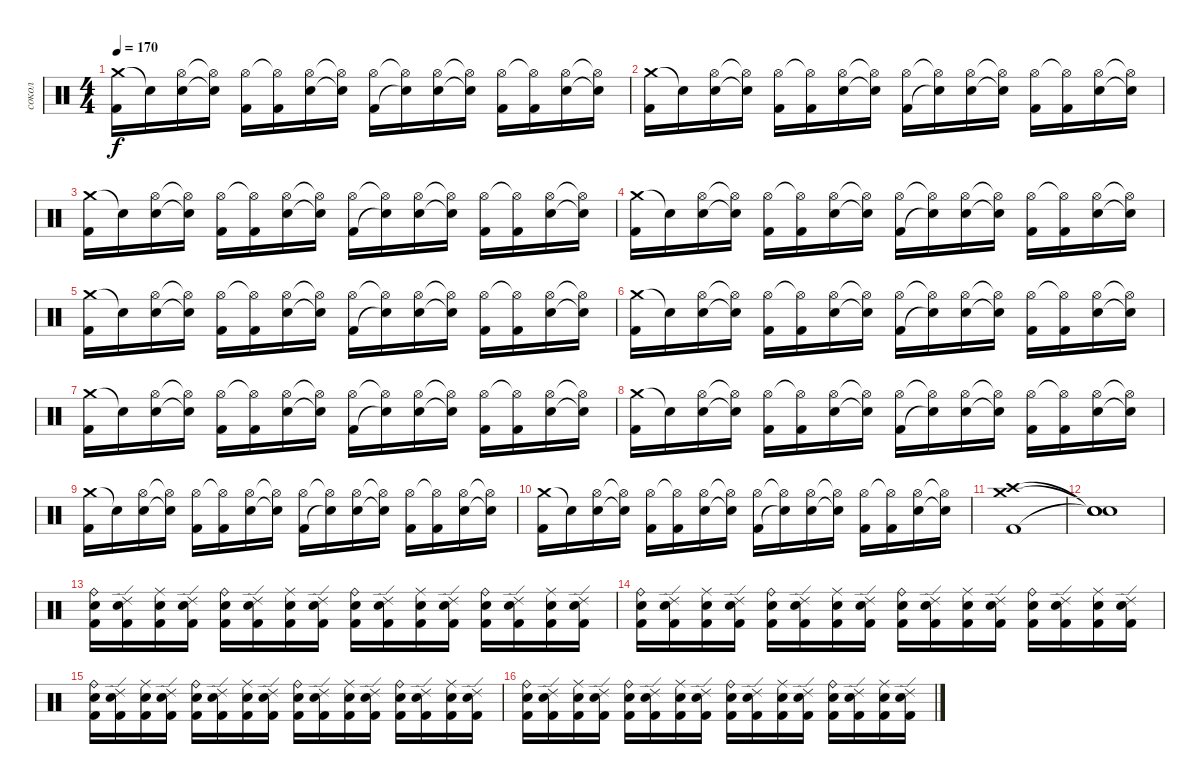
\track ("сокол" "сокол") {instrument percussion}
\staff
\articulation defaults
\ts (4 4)
\tempo 170
\clef neutral
\ks c
("Crash medium (hit)" "Kick (hit) 2").16{dy f} "Snare (hit)"{t}.16 ("Hi-Hat (open)" "Electric Snare (hit)").16 ("Hi-Hat (open)"{t} "Snare (hit)"{t}).16 ("Hi-Hat (open)" "Kick (hit) 2").16 ("Hi-Hat (open)"{t} "Kick (hit) 2").16 ("Hi-Hat (open)" "Electric Snare (hit)").16 ("Hi-Hat (open)"{t} "Snare (hit)"{t}).16 ("Hi-Hat (open)" "Kick (hit) 2").16 ("Hi-Hat (open)"{t} "Snare (hit)"{t}).16 ("Hi-Hat (open)" "Electric Snare (hit)").16 ("Hi-Hat (open)"{t} "Snare (hit)"{t}).16 ("Hi-Hat (open)" "Kick (hit) 2").16 ("Hi-Hat (open)"{t} "Kick (hit) 2").16 ("Hi-Hat (open)" "Electric Snare (hit)").16 ("Hi-Hat (open)"{t} "Snare (hit)"{t}).16 |
("Crash medium (hit)" "Kick (hit) 2").16 "Snare (hit)"{t}.16 ("Hi-Hat (open)" "Electric Snare (hit)").16 ("Hi-Hat (open)"{t} "Snare (hit)"{t}).16 ("Hi-Hat (open)" "Kick (hit) 2").16 ("Hi-Hat (open)"{t} "Kick (hit) 2").16 ("Hi-Hat (open)" "Electric Snare (hit)").16 ("Hi-Hat (open)"{t} "Snare (hit)"{t}).16 ("Hi-Hat (open)" "Kick (hit) 2").16 ("Hi-Hat (open)"{t} "Snare (hit)"{t}).16 ("Hi-Hat (open)" "Electric Snare (hit)").16 ("Hi-Hat (open)"{t} "Snare (hit)"{t}).16 ("Hi-Hat (open)" "Kick (hit) 2").16 ("Hi-Hat (open)"{t} "Kick (hit) 2").16 ("Hi-Hat (open)" "Electric Snare (hit)").16 ("Hi-Hat (open)"{t} "Snare (hit)"{t}).16 |
("Crash medium (hit)" "Kick (hit) 2").16 "Snare (hit)"{t}.16 ("Hi-Hat (open)" "Electric Snare (hit)").16 ("Hi-Hat (open)"{t} "Snare (hit)"{t}).16 ("Hi-Hat (open)" "Kick (hit) 2").16 ("Hi-Hat (open)"{t} "Kick (hit) 2").16 ("Hi-Hat (open)" "Electric Snare (hit)").16 ("Hi-Hat (open)"{t} "Snare (hit)"{t}).16 ("Hi-Hat (open)" "Kick (hit) 2").16 ("Hi-Hat (open)"{t} "Snare (hit)"{t}).16 ("Hi-Hat (open)" "Electric Snare (hit)").16 ("Hi-Hat (open)"{t} "Snare (hit)"{t}).16 ("Hi-Hat (open)" "Kick (hit) 2").16 ("Hi-Hat (open)"{t} "Kick (hit) 2").16 ("Hi-Hat (open)" "Electric Snare (hit)").16 ("Hi-Hat (open)"{t} "Snare (hit)"{t}).16 |
("Crash medium (hit)" "Kick (hit) 2").16 "Snare (hit)"{t}.16 ("Hi-Hat (open)" "Electric Snare (hit)").16 ("Hi-Hat (open)"{t} "Snare (hit)"{t}).16 ("Hi-Hat (open)" "Kick (hit) 2").16 ("Hi-Hat (open)"{t} "Kick (hit) 2").16 ("Hi-Hat (open)" "Electric Snare (hit)").16 ("Hi-Hat (open)"{t} "Snare (hit)"{t}).16 ("Hi-Hat (open)" "Kick (hit) 2").16 ("Hi-Hat (open)"{t} "Snare (hit)"{t}).16 ("Hi-Hat (open)" "Electric Snare (hit)").16 ("Hi-Hat (open)"{t} "Snare (hit)"{t}).16 ("Hi-Hat (open)" "Kick (hit) 2").16 ("Hi-Hat (open)"{t} "Kick (hit) 2").16 ("Hi-Hat (open)" "Electric Snare (hit)").16 ("Hi-Hat (open)"{t} "Snare (hit)"{t}).16 |
("Crash medium (hit)" "Kick (hit) 2").16 "Snare (hit)"{t}.16 ("Hi-Hat (open)" "Electric Snare (hit)").16 ("Hi-Hat (open)"{t} "Snare (hit)"{t}).16 ("Hi-Hat (open)" "Kick (hit) 2").16 ("Hi-Hat (open)"{t} "Kick (hit) 2").16 ("Hi-Hat (open)" "Electric Snare (hit)").16 ("Hi-Hat (open)"{t} "Snare (hit)"{t}).16 ("Hi-Hat (open)" "Kick (hit) 2").16 ("Hi-Hat (open)"{t} "Snare (hit)"{t}).16 ("Hi-Hat (open)" "Electric Snare (hit)").16 ("Hi-Hat (open)"{t} "Snare (hit)"{t}).16 ("Hi-Hat (open)" "Kick (hit) 2").16 ("Hi-Hat (open)"{t} "Kick (hit) 2").16 ("Hi-Hat (open)" "Electric Snare (hit)").16 ("Hi-Hat (open)"{t} "Snare (hit)"{t}).16 |
("Crash medium (hit)" "Kick (hit) 2").16 "Snare (hit)"{t}.16 ("Hi-Hat (open)" "Electric Snare (hit)").16 ("Hi-Hat (open)"{t} "Snare (hit)"{t}).16 ("Hi-Hat (open)" "Kick (hit) 2").16 ("Hi-Hat (open)"{t} "Kick (hit) 2").16 ("Hi-Hat (open)" "Electric Snare (hit)").16 ("Hi-Hat (open)"{t} "Snare (hit)"{t}).16 ("Hi-Hat (open)" "Kick (hit) 2").16 ("Hi-Hat (open)"{t} "Snare (hit)"{t}).16 ("Hi-Hat (open)" "Electric Snare (hit)").16 ("Hi-Hat (open)"{t} "Snare (hit)"{t}).16 ("Hi-Hat (open)" "Kick (hit) 2").16 ("Hi-Hat (open)"{t} "Kick (hit) 2").16 ("Hi-Hat (open)" "Electric Snare (hit)").16 ("Hi-Hat (open)"{t} "Snare (hit)"{t}).16 |
("Crash medium (hit)" "Kick (hit) 2").16 "Snare (hit)"{t}.16 ("Hi-Hat (open)" "Electric Snare (hit)").16 ("Hi-Hat (open)"{t} "Snare (hit)"{t}).16 ("Hi-Hat (open)" "Kick (hit) 2").16 ("Hi-Hat (open)"{t} "Kick (hit) 2").16 ("Hi-Hat (open)" "Electric Snare (hit)").16 ("Hi-Hat (open)"{t} "Snare (hit)"{t}).16 ("Hi-Hat (open)" "Kick (hit) 2").16 ("Hi-Hat (open)"{t} "Snare (hit)"{t}).16 ("Hi-Hat (open)" "Electric Snare (hit)").16 ("Hi-Hat (open)"{t} "Snare (hit)"{t}).16 ("Hi-Hat (open)" "Kick (hit) 2").16 ("Hi-Hat (open)"{t} "Kick (hit) 2").16 ("Hi-Hat (open)" "Electric Snare (hit)").16 ("Hi-Hat (open)"{t} "Snare (hit)"{t}).16 |
("Crash medium (hit)" "Kick (hit) 2").16 "Snare (hit)"{t}.16 ("Hi-Hat (open)" "Electric Snare (hit)").16 ("Hi-Hat (open)"{t} "Snare (hit)"{t}).16 ("Hi-Hat (open)" "Kick (hit) 2").16 ("Hi-Hat (open)"{t} "Kick (hit) 2").16 ("Hi-Hat (open)" "Electric Snare (hit)").16 ("Hi-Hat (open)"{t} "Snare (hit)"{t}).16 ("Hi-Hat (open)" "Kick (hit) 2").16 ("Hi-Hat (open)"{t} "Snare (hit)"{t}).16 ("Hi-Hat (open)" "Electric Snare (hit)").16 ("Hi-Hat (open)"{t} "Snare (hit)"{t}).16 ("Hi-Hat (open)" "Kick (hit) 2").16 ("Hi-Hat (open)"{t} "Kick (hit) 2").16 ("Hi-Hat (open)" "Electric Snare (hit)").16 ("Hi-Hat (open)"{t} "Snare (hit)"{t}).16 |
("Crash medium (hit)" "Kick (hit) 2").16 "Snare (hit)"{t}.16 ("Hi-Hat (open)" "Electric Snare (hit)").16 ("Hi-Hat (open)"{t} "Snare (hit)"{t}).16 ("Hi-Hat (open)" "Kick (hit) 2").16 ("Hi-Hat (open)"{t} "Kick (hit) 2").16 ("Hi-Hat (open)" "Electric Snare (hit)").16 ("Hi-Hat (open)"{t} "Snare (hit)"{t}).16 ("Hi-Hat (open)" "Kick (hit) 2").16 ("Hi-Hat (open)"{t} "Snare (hit)"{t}).16 ("Hi-Hat (open)" "Electric Snare (hit)").16 ("Hi-Hat (open)"{t} "Snare (hit)"{t}).16 ("Hi-Hat (open)" "Kick (hit) 2").16 ("Hi-Hat (open)"{t} "Kick (hit) 2").16 ("Hi-Hat (open)" "Electric Snare (hit)").16 ("Hi-Hat (open)"{t} "Snare (hit)"{t}).16 |
("Crash medium (hit)" "Kick (hit) 2").16 "Snare (hit)"{t}.16 ("Hi-Hat (open)" "Electric Snare (hit)").16 ("Hi-Hat (open)"{t} "Snare (hit)"{t}).16 ("Hi-Hat (open)" "Kick (hit) 2").16 ("Hi-Hat (open)"{t} "Kick (hit) 2").16 ("Hi-Hat (open)" "Electric Snare (hit)").16 ("Hi-Hat (open)"{t} "Snare (hit)"{t}).16 ("Hi-Hat (open)" "Kick (hit) 2").16 ("Hi-Hat (open)"{t} "Snare (hit)"{t}).16 ("Hi-Hat (open)" "Electric Snare (hit)").16 ("Hi-Hat (open)"{t} "Snare (hit)"{t}).16 ("Hi-Hat (open)" "Kick (hit) 2").16 ("Hi-Hat (open)"{t} "Kick (hit) 2").16 ("Hi-Hat (open)" "Electric Snare (hit)").16 ("Hi-Hat (open)"{t} "Snare (hit)"{t}).16 |
("Crash high (hit)" "Crash medium (hit)" "Kick (hit) 2").1 |
("Snare (hit)"{t} "Snare (hit)"{t} "Snare (hit)"{t}).1 |
("Ride (bell)" "Electric Snare (hit)" "Kick (hit) 2").16 ("Ride (edge) 2" "Electric Snare (hit)" "Kick (hit) 2").16 ("Ride (middle)" "Electric Snare (hit)" "Kick (hit) 2").16 ("Ride (edge) 2" "Electric Snare (hit)" "Kick (hit) 2").16 ("Ride (bell)" "Electric Snare (hit)" "Kick (hit) 2").16 ("Ride (edge) 2" "Electric Snare (hit)" "Kick (hit) 2").16 ("Ride (middle)" "Electric Snare (hit)" "Kick (hit) 2").16 ("Ride (edge) 2" "Electric Snare (hit)" "Kick (hit) 2").16 ("Ride (bell)" "Electric Snare (hit)" "Kick (hit) 2").16 ("Ride (edge) 2" "Electric Snare (hit)" "Kick (hit) 2").16 ("Ride (middle)" "Electric Snare (hit)" "Kick (hit) 2").16 ("Ride (edge) 2" "Electric Snare (hit)" "Kick (hit) 2").16 ("Ride (bell)" "Electric Snare (hit)" "Kick (hit) 2").16 ("Ride (edge) 2" "Electric Snare (hit)" "Kick (hit) 2").16 ("Ride (middle)" "Electric Snare (hit)" "Kick (hit) 2").16 ("Ride (edge) 2" "Electric Snare (hit)" "Kick (hit) 2").16 |
("Ride (bell)" "Electric Snare (hit)" "Kick (hit) 2").16 ("Ride (edge) 2" "Electric Snare (hit)" "Kick (hit) 2").16 ("Ride (middle)" "Electric Snare (hit)" "Kick (hit) 2").16 ("Ride (edge) 2" "Electric Snare (hit)" "Kick (hit) 2").16 ("Ride (bell)" "Electric Snare (hit)" "Kick (hit) 2").16 ("Ride (edge) 2" "Electric Snare (hit)" "Kick (hit) 2").16 ("Ride (middle)" "Electric Snare (hit)" "Kick (hit) 2").16 ("Ride (edge) 2" "Electric Snare (hit)" "Kick (hit) 2").16 ("Ride (bell)" "Electric Snare (hit)" "Kick (hit) 2").16 ("Ride (edge) 2" "Electric Snare (hit)" "Kick (hit) 2").16 ("Ride (middle)" "Electric Snare (hit)" "Kick (hit) 2").16 ("Ride (edge) 2" "Electric Snare (hit)" "Kick (hit) 2").16 ("Ride (bell)" "Electric Snare (hit)" "Kick (hit) 2").16 ("Ride (edge) 2" "Electric Snare (hit)" "Kick (hit) 2").16 ("Ride (middle)" "Electric Snare (hit)" "Kick (hit) 2").16 ("Ride (edge) 2" "Electric Snare (hit)" "Kick (hit) 2").16 |
("Ride (bell)" "Electric Snare (hit)" "Kick (hit) 2").16 ("Ride (edge) 2" "Electric Snare (hit)" "Kick (hit) 2").16 ("Ride (middle)" "Electric Snare (hit)" "Kick (hit) 2").16 ("Ride (edge) 2" "Electric Snare (hit)" "Kick (hit) 2").16 ("Ride (bell)" "Electric Snare (hit)" "Kick (hit) 2").16 ("Ride (edge) 2" "Electric Snare (hit)" "Kick (hit) 2").16 ("Ride (middle)" "Electric Snare (hit)" "Kick (hit) 2").16 ("Ride (edge) 2" "Electric Snare (hit)" "Kick (hit) 2").16 ("Ride (bell)" "Electric Snare (hit)" "Kick (hit) 2").16 ("Ride (edge) 2" "Electric Snare (hit)" "Kick (hit) 2").16 ("Ride (middle)" "Electric Snare (hit)" "Kick (hit) 2").16 ("Ride (edge) 2" "Electric Snare (hit)" "Kick (hit) 2").16 ("Ride (bell)" "Electric Snare (hit)" "Kick (hit) 2").16 ("Ride (edge) 2" "Electric Snare (hit)" "Kick (hit) 2").16 ("Ride (middle)" "Electric Snare (hit)" "Kick (hit) 2").16 ("Ride (edge) 2" "Electric Snare (hit)" "Kick (hit) 2").16 |
("Ride (bell)" "Electric Snare (hit)" "Kick (hit) 2").16 ("Ride (edge) 2" "Electric Snare (hit)" "Kick (hit) 2").16 ("Ride (middle)" "Electric Snare (hit)" "Kick (hit) 2").16 ("Ride (edge) 2" "Electric Snare (hit)" "Kick (hit) 2").16 ("Ride (bell)" "Electric Snare (hit)" "Kick (hit) 2").16 ("Ride (edge) 2" "Electric Snare (hit)" "Kick (hit) 2").16 ("Ride (middle)" "Electric Snare (hit)" "Kick (hit) 2").16 ("Ride (edge) 2" "Electric Snare (hit)" "Kick (hit) 2").16 ("Ride (bell)" "Electric Snare (hit)" "Kick (hit) 2").16 ("Ride (edge) 2" "Electric Snare (hit)" "Kick (hit) 2").16 ("Ride (middle)" "Electric Snare (hit)" "Kick (hit) 2").16 ("Ride (edge) 2" "Electric Snare (hit)" "Kick (hit) 2").16 ("Ride (bell)" "Electric Snare (hit)" "Kick (hit) 2").16 ("Ride (edge) 2" "Electric Snare (hit)" "Kick (hit) 2").16 ("Ride (middle)" "Electric Snare (hit)" "Kick (hit) 2").16 ("Ride (edge) 2" "Electric Snare (hit)" "Kick (hit) 2").16
